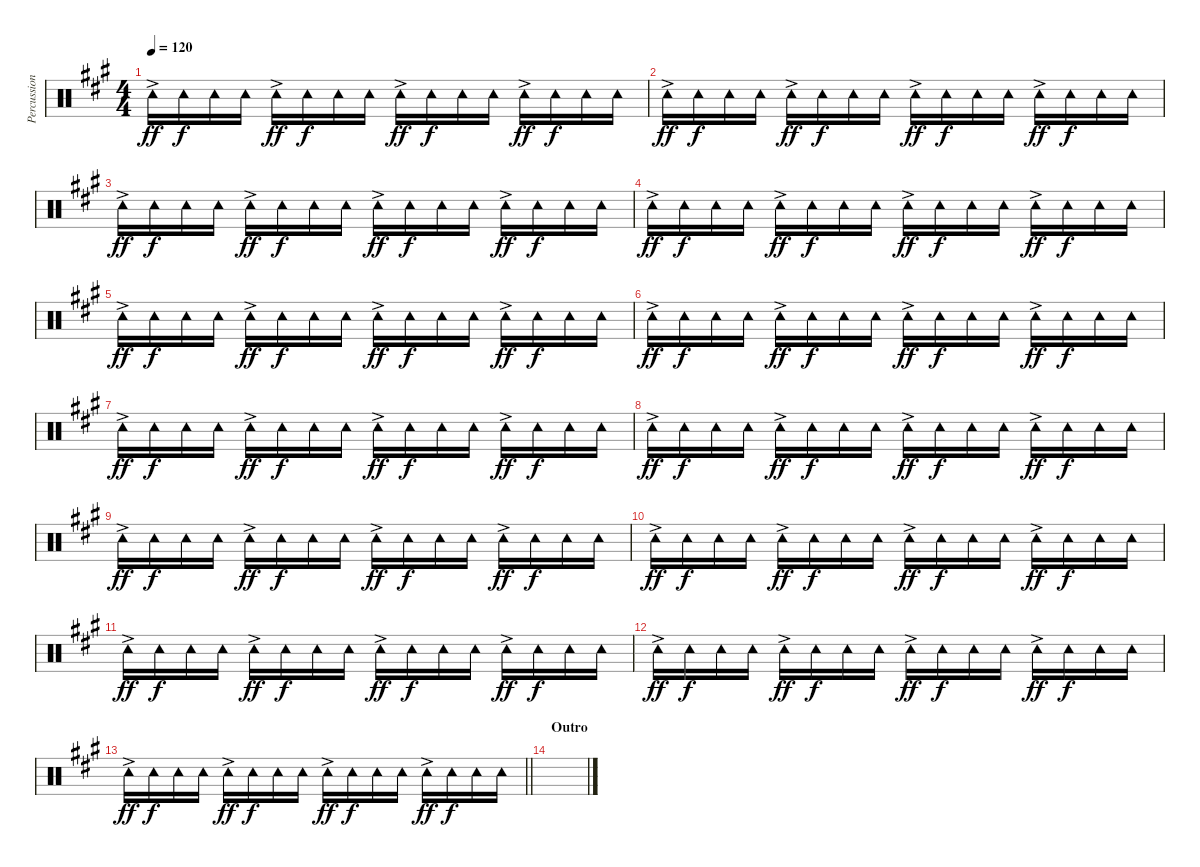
\track ("Percussion" "Percussion") {instrument percussion}
\staff {score}
\articulation defaults
\ts (4 4)
\tempo 120
\clef neutral
\ks a "Tambourine (hit)"{ac}.16{dy ff} "Tambourine (hit)".16{dy f} "Tambourine (hit)".16 "Tambourine (hit)".16 "Tambourine (hit)"{ac}.16{dy ff} "Tambourine (hit)".16{dy f} "Tambourine (hit)".16 "Tambourine (hit)".16 "Tambourine (hit)"{ac}.16{dy ff} "Tambourine (hit)".16{dy f} "Tambourine (hit)".16 "Tambourine (hit)".16 "Tambourine (hit)"{ac}.16{dy ff} "Tambourine (hit)".16{dy f} "Tambourine (hit)".16 "Tambourine (hit)".16
|
"Tambourine (hit)"{ac}.16{dy ff} "Tambourine (hit)".16{dy f} "Tambourine (hit)".16 "Tambourine (hit)".16 "Tambourine (hit)"{ac}.16{dy ff} "Tambourine (hit)".16{dy f} "Tambourine (hit)".16 "Tambourine (hit)".16 "Tambourine (hit)"{ac}.16{dy ff} "Tambourine (hit)".16{dy f} "Tambourine (hit)".16 "Tambourine (hit)".16 "Tambourine (hit)"{ac}.16{dy ff} "Tambourine (hit)".16{dy f} "Tambourine (hit)".16 "Tambourine (hit)".16 |
"Tambourine (hit)"{ac}.16{dy ff} "Tambourine (hit)".16{dy f} "Tambourine (hit)".16 "Tambourine (hit)".16 "Tambourine (hit)"{ac}.16{dy ff} "Tambourine (hit)".16{dy f} "Tambourine (hit)".16 "Tambourine (hit)".16 "Tambourine (hit)"{ac}.16{dy ff} "Tambourine (hit)".16{dy f} "Tambourine (hit)".16 "Tambourine (hit)".16 "Tambourine (hit)"{ac}.16{dy ff} "Tambourine (hit)".16{dy f} "Tambourine (hit)".16 "Tambourine (hit)".16 |
"Tambourine (hit)"{ac}.16{dy ff} "Tambourine (hit)".16{dy f} "Tambourine (hit)".16 "Tambourine (hit)".16 "Tambourine (hit)"{ac}.16{dy ff} "Tambourine (hit)".16{dy f} "Tambourine (hit)".16 "Tambourine (hit)".16 "Tambourine (hit)"{ac}.16{dy ff} "Tambourine (hit)".16{dy f} "Tambourine (hit)".16 "Tambourine (hit)".16 "Tambourine (hit)"{ac}.16{dy ff} "Tambourine (hit)".16{dy f} "Tambourine (hit)".16 "Tambourine (hit)".16 |
"Tambourine (hit)"{ac}.16{dy ff} "Tambourine (hit)".16{dy f} "Tambourine (hit)".16 "Tambourine (hit)".16 "Tambourine (hit)"{ac}.16{dy ff} "Tambourine (hit)".16{dy f} "Tambourine (hit)".16 "Tambourine (hit)".16 "Tambourine (hit)"{ac}.16{dy ff} "Tambourine (hit)".16{dy f} "Tambourine (hit)".16 "Tambourine (hit)".16 "Tambourine (hit)"{ac}.16{dy ff} "Tambourine (hit)".16{dy f} "Tambourine (hit)".16 "Tambourine (hit)".16 |
"Tambourine (hit)"{ac}.16{dy ff} "Tambourine (hit)".16{dy f} "Tambourine (hit)".16 "Tambourine (hit)".16 "Tambourine (hit)"{ac}.16{dy ff} "Tambourine (hit)".16{dy f} "Tambourine (hit)".16 "Tambourine (hit)".16 "Tambourine (hit)"{ac}.16{dy ff} "Tambourine (hit)".16{dy f} "Tambourine (hit)".16 "Tambourine (hit)".16 "Tambourine (hit)"{ac}.16{dy ff} "Tambourine (hit)".16{dy f} "Tambourine (hit)".16 "Tambourine (hit)".16 |
"Tambourine (hit)"{ac}.16{dy ff} "Tambourine (hit)".16{dy f} "Tambourine (hit)".16 "Tambourine (hit)".16 "Tambourine (hit)"{ac}.16{dy ff} "Tambourine (hit)".16{dy f} "Tambourine (hit)".16 "Tambourine (hit)".16 "Tambourine (hit)"{ac}.16{dy ff} "Tambourine (hit)".16{dy f} "Tambourine (hit)".16 "Tambourine (hit)".16 "Tambourine (hit)"{ac}.16{dy ff} "Tambourine (hit)".16{dy f} "Tambourine (hit)".16 "Tambourine (hit)".16 |
"Tambourine (hit)"{ac}.16{dy ff} "Tambourine (hit)".16{dy f} "Tambourine (hit)".16 "Tambourine (hit)".16 "Tambourine (hit)"{ac}.16{dy ff} "Tambourine (hit)".16{dy f} "Tambourine (hit)".16 "Tambourine (hit)".16 "Tambourine (hit)"{ac}.16{dy ff} "Tambourine (hit)".16{dy f} "Tambourine (hit)".16 "Tambourine (hit)".16 "Tambourine (hit)"{ac}.16{dy ff} "Tambourine (hit)".16{dy f} "Tambourine (hit)".16 "Tambourine (hit)".16 |
"Tambourine (hit)"{ac}.16{dy ff} "Tambourine (hit)".16{dy f} "Tambourine (hit)".16 "Tambourine (hit)".16 "Tambourine (hit)"{ac}.16{dy ff} "Tambourine (hit)".16{dy f} "Tambourine (hit)".16 "Tambourine (hit)".16 "Tambourine (hit)"{ac}.16{dy ff} "Tambourine (hit)".16{dy f} "Tambourine (hit)".16 "Tambourine (hit)".16 "Tambourine (hit)"{ac}.16{dy ff} "Tambourine (hit)".16{dy f} "Tambourine (hit)".16 "Tambourine (hit)".16 |
"Tambourine (hit)"{ac}.16{dy ff} "Tambourine (hit)".16{dy f} "Tambourine (hit)".16 "Tambourine (hit)".16 "Tambourine (hit)"{ac}.16{dy ff} "Tambourine (hit)".16{dy f} "Tambourine (hit)".16 "Tambourine (hit)".16 "Tambourine (hit)"{ac}.16{dy ff} "Tambourine (hit)".16{dy f} "Tambourine (hit)".16 "Tambourine (hit)".16 "Tambourine (hit)"{ac}.16{dy ff} "Tambourine (hit)".16{dy f} "Tambourine (hit)".16 "Tambourine (hit)".16 |
"Tambourine (hit)"{ac}.16{dy ff} "Tambourine (hit)".16{dy f} "Tambourine (hit)".16 "Tambourine (hit)".16 "Tambourine (hit)"{ac}.16{dy ff} "Tambourine (hit)".16{dy f} "Tambourine (hit)".16 "Tambourine (hit)".16 "Tambourine (hit)"{ac}.16{dy ff} "Tambourine (hit)".16{dy f} "Tambourine (hit)".16 "Tambourine (hit)".16 "Tambourine (hit)"{ac}.16{dy ff} "Tambourine (hit)".16{dy f} "Tambourine (hit)".16 "Tambourine (hit)".16 |
"Tambourine (hit)"{ac}.16{dy ff} "Tambourine (hit)".16{dy f} "Tambourine (hit)".16 "Tambourine (hit)".16 "Tambourine (hit)"{ac}.16{dy ff} "Tambourine (hit)".16{dy f} "Tambourine (hit)".16 "Tambourine (hit)".16 "Tambourine (hit)"{ac}.16{dy ff} "Tambourine (hit)".16{dy f} "Tambourine (hit)".16 "Tambourine (hit)".16 "Tambourine (hit)"{ac}.16{dy ff} "Tambourine (hit)".16{dy f} "Tambourine (hit)".16 "Tambourine (hit)".16 |
\barLineRight lightlight "Tambourine (hit)"{ac}.16{dy ff} "Tambourine (hit)".16{dy f} "Tambourine (hit)".16 "Tambourine (hit)".16 "Tambourine (hit)"{ac}.16{dy ff} "Tambourine (hit)".16{dy f} "Tambourine (hit)".16 "Tambourine (hit)".16 "Tambourine (hit)"{ac}.16{dy ff} "Tambourine (hit)".16{dy f} "Tambourine (hit)".16 "Tambourine (hit)".16 "Tambourine (hit)"{ac}.16{dy ff} "Tambourine (hit)".16{dy f} "Tambourine (hit)".16 "Tambourine (hit)".16
|
\section ("" "Outro")
